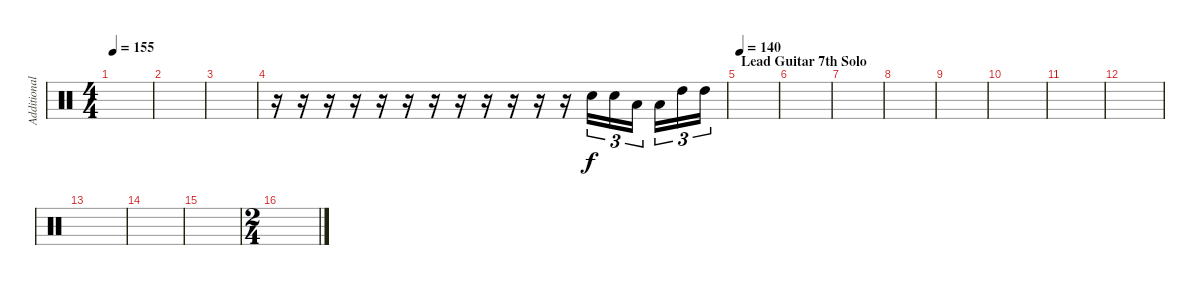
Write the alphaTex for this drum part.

\track ("Additional Drums" "Additional") {instrument percussion}
\staff {score}
\articulation defaults
\ts (4 4)
\tempo 155
\clef neutral
\ks c
|
|
|
r.16 r.16 r.16 r.16 r.16 r.16 r.16 r.16 r.16 r.16 r.16 r.16 "Electric Snare (hit)".16{tu (3 2)} "Electric Snare (hit)".16{tu (3 2)} "Low Tom (hit)".16{tu (3 2)} "Low Tom (hit)".16{tu (3 2)} "High Tom (hit)".16{tu (3 2)} "High Tom (hit)".16{tu (3 2)} |
\section ("" "Lead Guitar 7th Solo")
\tempo 140
|
|
|
|
|
|
|
|
|
|
|
\ts (2 4)
